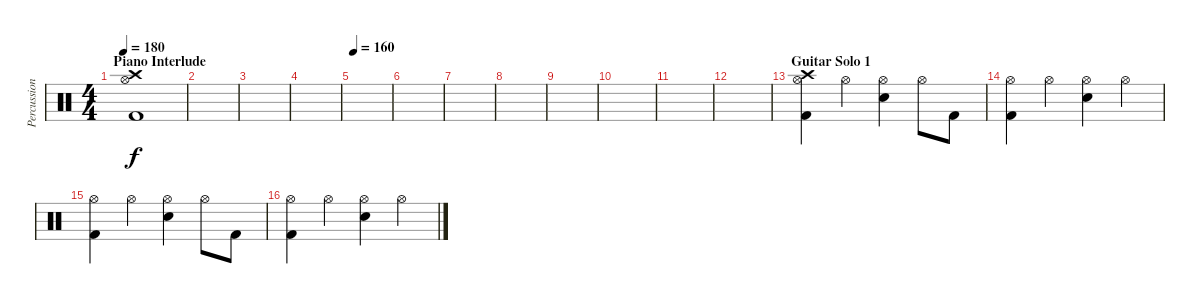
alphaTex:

\track ("Percussions" "Percussion") {instrument percussion}
\staff {score}
\articulation defaults
\ts (4 4)
\section ("" "Piano Interlude")
\tempo 180
\clef neutral
\ks c
("Crash high (hit)" "Hi-Hat (open)" "Kick (hit) 2").1{dy f} |
|
|
|
\tempo 160
|
|
|
|
|
|
|
|
\section ("" "Guitar Solo 1")
("Crash high (hit)" "Hi-Hat (open)" "Kick (hit) 2").4 "Hi-Hat (open)".4 ("Hi-Hat (open)" "Electric Snare (hit)").4 "Hi-Hat (open)".8 "Kick (hit) 2".8 |
("Hi-Hat (open)" "Kick (hit) 2").4 "Hi-Hat (open)".4 ("Hi-Hat (open)" "Electric Snare (hit)").4 "Hi-Hat (open)".4 |
("Hi-Hat (open)" "Kick (hit) 2").4 "Hi-Hat (open)".4 ("Hi-Hat (open)" "Electric Snare (hit)").4 "Hi-Hat (open)".8 "Kick (hit) 2".8 |
("Hi-Hat (open)" "Kick (hit) 2").4 "Hi-Hat (open)".4 ("Hi-Hat (open)" "Electric Snare (hit)").4 "Hi-Hat (open)".4
